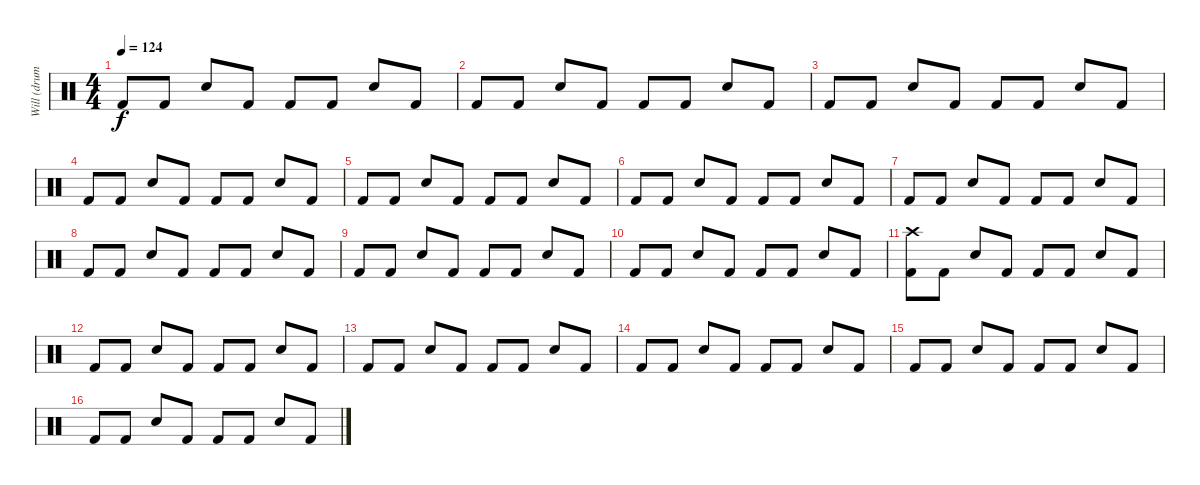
\track ("Will (drums)" "Will (drum") {instrument percussion}
\staff {score}
\articulation defaults
\ts (4 4)
\tempo 124
\clef neutral
\ks c "Kick (hit) 2".8{dy f} "Kick (hit) 2".8 "Snare (hit) 2".8 "Kick (hit) 2".8 "Kick (hit) 2".8 "Kick (hit) 2".8 "Snare (hit) 2".8 "Kick (hit) 2".8
|
"Kick (hit) 2".8 "Kick (hit) 2".8 "Snare (hit) 2".8 "Kick (hit) 2".8 "Kick (hit) 2".8 "Kick (hit) 2".8 "Snare (hit) 2".8 "Kick (hit) 2".8 |
"Kick (hit) 2".8 "Kick (hit) 2".8 "Snare (hit) 2".8 "Kick (hit) 2".8 "Kick (hit) 2".8 "Kick (hit) 2".8 "Snare (hit) 2".8 "Kick (hit) 2".8 |
"Kick (hit) 2".8 "Kick (hit) 2".8 "Snare (hit) 2".8 "Kick (hit) 2".8 "Kick (hit) 2".8 "Kick (hit) 2".8 "Snare (hit) 2".8 "Kick (hit) 2".8 |
"Kick (hit) 2".8 "Kick (hit) 2".8 "Snare (hit) 2".8 "Kick (hit) 2".8 "Kick (hit) 2".8 "Kick (hit) 2".8 "Snare (hit) 2".8 "Kick (hit) 2".8 |
"Kick (hit) 2".8 "Kick (hit) 2".8 "Snare (hit) 2".8 "Kick (hit) 2".8 "Kick (hit) 2".8 "Kick (hit) 2".8 "Snare (hit) 2".8 "Kick (hit) 2".8 |
"Kick (hit) 2".8 "Kick (hit) 2".8 "Snare (hit) 2".8 "Kick (hit) 2".8 "Kick (hit) 2".8 "Kick (hit) 2".8 "Snare (hit) 2".8 "Kick (hit) 2".8 |
"Kick (hit) 2".8 "Kick (hit) 2".8 "Snare (hit) 2".8 "Kick (hit) 2".8 "Kick (hit) 2".8 "Kick (hit) 2".8 "Snare (hit) 2".8 "Kick (hit) 2".8 |
"Kick (hit) 2".8 "Kick (hit) 2".8 "Snare (hit) 2".8 "Kick (hit) 2".8 "Kick (hit) 2".8 "Kick (hit) 2".8 "Snare (hit) 2".8 "Kick (hit) 2".8 |
"Kick (hit) 2".8 "Kick (hit) 2".8 "Snare (hit) 2".8 "Kick (hit) 2".8 "Kick (hit) 2".8 "Kick (hit) 2".8 "Snare (hit) 2".8 "Kick (hit) 2".8 |
("Kick (hit) 2" "Crash high (hit)").8 "Kick (hit) 2".8 "Snare (hit) 2".8 "Kick (hit) 2".8 "Kick (hit) 2".8 "Kick (hit) 2".8 "Snare (hit) 2".8 "Kick (hit) 2".8 |
"Kick (hit) 2".8 "Kick (hit) 2".8 "Snare (hit) 2".8 "Kick (hit) 2".8 "Kick (hit) 2".8 "Kick (hit) 2".8 "Snare (hit) 2".8 "Kick (hit) 2".8 |
"Kick (hit) 2".8 "Kick (hit) 2".8 "Snare (hit) 2".8 "Kick (hit) 2".8 "Kick (hit) 2".8 "Kick (hit) 2".8 "Snare (hit) 2".8 "Kick (hit) 2".8 |
"Kick (hit) 2".8 "Kick (hit) 2".8 "Snare (hit) 2".8 "Kick (hit) 2".8 "Kick (hit) 2".8 "Kick (hit) 2".8 "Snare (hit) 2".8 "Kick (hit) 2".8 |
"Kick (hit) 2".8 "Kick (hit) 2".8 "Snare (hit) 2".8 "Kick (hit) 2".8 "Kick (hit) 2".8 "Kick (hit) 2".8 "Snare (hit) 2".8 "Kick (hit) 2".8 |
"Kick (hit) 2".8 "Kick (hit) 2".8 "Snare (hit) 2".8 "Kick (hit) 2".8 "Kick (hit) 2".8 "Kick (hit) 2".8 "Snare (hit) 2".8 "Kick (hit) 2".8
